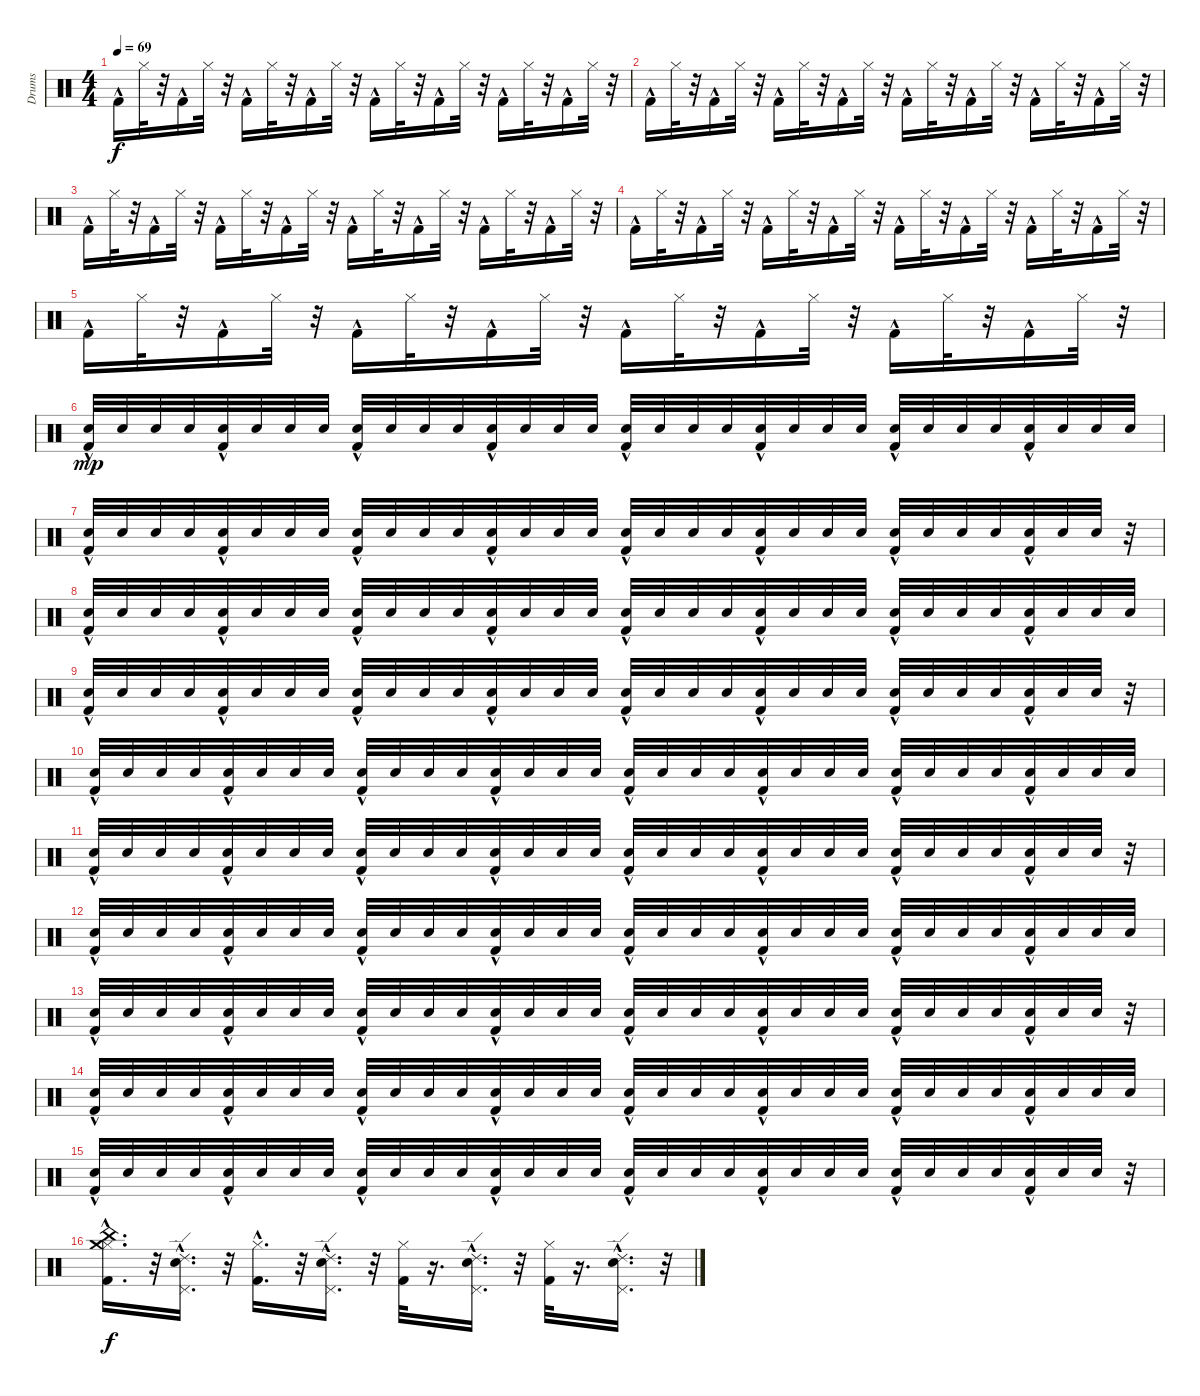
\track ("Drums" "Drums") {instrument percussion}
\staff {score}
\articulation defaults
\ts (4 4)
\tempo 69
\clef neutral
\ks c "Kick (hit) 2"{hac}.16{dy f} "Hi-Hat (closed)".32
r.32 "Kick (hit) 2"{hac}.16 "Hi-Hat (closed)".32 r.32 "Kick (hit) 2"{hac}.16 "Hi-Hat (closed)".32 r.32 "Kick (hit) 2"{hac}.16 "Hi-Hat (closed)".32 r.32 "Kick (hit) 2"{hac}.16 "Hi-Hat (closed)".32 r.32 "Kick (hit) 2"{hac}.16 "Hi-Hat (closed)".32 r.32 "Kick (hit) 2"{hac}.16 "Hi-Hat (closed)".32 r.32 "Kick (hit) 2"{hac}.16 "Hi-Hat (closed)".32 r.32 |
"Kick (hit) 2"{hac}.16 "Hi-Hat (closed)".32 r.32 "Kick (hit) 2"{hac}.16 "Hi-Hat (closed)".32 r.32 "Kick (hit) 2"{hac}.16 "Hi-Hat (closed)".32 r.32 "Kick (hit) 2"{hac}.16 "Hi-Hat (closed)".32 r.32 "Kick (hit) 2"{hac}.16 "Hi-Hat (closed)".32 r.32 "Kick (hit) 2"{hac}.16 "Hi-Hat (closed)".32 r.32 "Kick (hit) 2"{hac}.16 "Hi-Hat (closed)".32 r.32 "Kick (hit) 2"{hac}.16 "Hi-Hat (closed)".32 r.32 |
"Kick (hit) 2"{hac}.16 "Hi-Hat (closed)".32 r.32 "Kick (hit) 2"{hac}.16 "Hi-Hat (closed)".32 r.32 "Kick (hit) 2"{hac}.16 "Hi-Hat (closed)".32 r.32 "Kick (hit) 2"{hac}.16 "Hi-Hat (closed)".32 r.32 "Kick (hit) 2"{hac}.16 "Hi-Hat (closed)".32 r.32 "Kick (hit) 2"{hac}.16 "Hi-Hat (closed)".32 r.32 "Kick (hit) 2"{hac}.16 "Hi-Hat (closed)".32 r.32 "Kick (hit) 2"{hac}.16 "Hi-Hat (closed)".32 r.32 |
"Kick (hit) 2"{hac}.16 "Hi-Hat (closed)".32 r.32 "Kick (hit) 2"{hac}.16 "Hi-Hat (closed)".32 r.32 "Kick (hit) 2"{hac}.16 "Hi-Hat (closed)".32 r.32 "Kick (hit) 2"{hac}.16 "Hi-Hat (closed)".32 r.32 "Kick (hit) 2"{hac}.16 "Hi-Hat (closed)".32 r.32 "Kick (hit) 2"{hac}.16 "Hi-Hat (closed)".32 r.32 "Kick (hit) 2"{hac}.16 "Hi-Hat (closed)".32 r.32 "Kick (hit) 2"{hac}.16 "Hi-Hat (closed)".32 r.32 |
"Kick (hit) 2"{hac}.16 "Hi-Hat (closed)".32 r.32 "Kick (hit) 2"{hac}.16 "Hi-Hat (closed)".32 r.32 "Kick (hit) 2"{hac}.16 "Hi-Hat (closed)".32 r.32 "Kick (hit) 2"{hac}.16 "Hi-Hat (closed)".32 r.32 "Kick (hit) 2"{hac}.16 "Hi-Hat (closed)".32 r.32 "Kick (hit) 2"{hac}.16 "Hi-Hat (closed)".32 r.32 "Kick (hit) 2"{hac}.16 "Hi-Hat (closed)".32 r.32 "Kick (hit) 2"{hac}.16 "Hi-Hat (closed)".32 r.32 |
("Snare (hit) 2" "Kick (hit) 2"{hac}).32{dy mp} "Snare (hit) 2".32 "Snare (hit) 2".32 "Snare (hit) 2".32 ("Snare (hit) 2" "Kick (hit) 2"{hac}).32 "Snare (hit) 2".32 "Snare (hit) 2".32 "Snare (hit) 2".32 ("Snare (hit) 2" "Kick (hit) 2"{hac}).32 "Snare (hit) 2".32 "Snare (hit) 2".32 "Snare (hit) 2".32 ("Snare (hit) 2" "Kick (hit) 2"{hac}).32 "Snare (hit) 2".32 "Snare (hit) 2".32 "Snare (hit) 2".32 ("Snare (hit) 2" "Kick (hit) 2"{hac}).32 "Snare (hit) 2".32 "Snare (hit) 2".32 "Snare (hit) 2".32 ("Snare (hit) 2" "Kick (hit) 2"{hac}).32 "Snare (hit) 2".32 "Snare (hit) 2".32 "Snare (hit) 2".32 ("Snare (hit) 2" "Kick (hit) 2"{hac}).32 "Snare (hit) 2".32 "Snare (hit) 2".32 "Snare (hit) 2".32 ("Snare (hit) 2" "Kick (hit) 2"{hac}).32 "Snare (hit) 2".32 "Snare (hit) 2".32 "Snare (hit) 2".32 |
("Snare (hit) 2" "Kick (hit) 2"{hac}).32 "Snare (hit) 2".32 "Snare (hit) 2".32 "Snare (hit) 2".32 ("Snare (hit) 2" "Kick (hit) 2"{hac}).32 "Snare (hit) 2".32 "Snare (hit) 2".32 "Snare (hit) 2".32 ("Snare (hit) 2" "Kick (hit) 2"{hac}).32 "Snare (hit) 2".32 "Snare (hit) 2".32 "Snare (hit) 2".32 ("Snare (hit) 2" "Kick (hit) 2"{hac}).32 "Snare (hit) 2".32 "Snare (hit) 2".32 "Snare (hit) 2".32 ("Snare (hit) 2" "Kick (hit) 2"{hac}).32 "Snare (hit) 2".32 "Snare (hit) 2".32 "Snare (hit) 2".32 ("Snare (hit) 2" "Kick (hit) 2"{hac}).32 "Snare (hit) 2".32 "Snare (hit) 2".32 "Snare (hit) 2".32 ("Snare (hit) 2" "Kick (hit) 2"{hac}).32 "Snare (hit) 2".32 "Snare (hit) 2".32 "Snare (hit) 2".32 ("Snare (hit) 2" "Kick (hit) 2"{hac}).32 "Snare (hit) 2".32 "Snare (hit) 2".32 r.32 |
("Snare (hit) 2" "Kick (hit) 2"{hac}).32 "Snare (hit) 2".32 "Snare (hit) 2".32 "Snare (hit) 2".32 ("Snare (hit) 2" "Kick (hit) 2"{hac}).32 "Snare (hit) 2".32 "Snare (hit) 2".32 "Snare (hit) 2".32 ("Snare (hit) 2" "Kick (hit) 2"{hac}).32 "Snare (hit) 2".32 "Snare (hit) 2".32 "Snare (hit) 2".32 ("Snare (hit) 2" "Kick (hit) 2"{hac}).32 "Snare (hit) 2".32 "Snare (hit) 2".32 "Snare (hit) 2".32 ("Snare (hit) 2" "Kick (hit) 2"{hac}).32 "Snare (hit) 2".32 "Snare (hit) 2".32 "Snare (hit) 2".32 ("Snare (hit) 2" "Kick (hit) 2"{hac}).32 "Snare (hit) 2".32 "Snare (hit) 2".32 "Snare (hit) 2".32 ("Snare (hit) 2" "Kick (hit) 2"{hac}).32 "Snare (hit) 2".32 "Snare (hit) 2".32 "Snare (hit) 2".32 ("Snare (hit) 2" "Kick (hit) 2"{hac}).32 "Snare (hit) 2".32 "Snare (hit) 2".32 "Snare (hit) 2".32 |
("Snare (hit) 2" "Kick (hit) 2"{hac}).32 "Snare (hit) 2".32 "Snare (hit) 2".32 "Snare (hit) 2".32 ("Snare (hit) 2" "Kick (hit) 2"{hac}).32 "Snare (hit) 2".32 "Snare (hit) 2".32 "Snare (hit) 2".32 ("Snare (hit) 2" "Kick (hit) 2"{hac}).32 "Snare (hit) 2".32 "Snare (hit) 2".32 "Snare (hit) 2".32 ("Snare (hit) 2" "Kick (hit) 2"{hac}).32 "Snare (hit) 2".32 "Snare (hit) 2".32 "Snare (hit) 2".32 ("Snare (hit) 2" "Kick (hit) 2"{hac}).32 "Snare (hit) 2".32 "Snare (hit) 2".32 "Snare (hit) 2".32 ("Snare (hit) 2" "Kick (hit) 2"{hac}).32 "Snare (hit) 2".32 "Snare (hit) 2".32 "Snare (hit) 2".32 ("Snare (hit) 2" "Kick (hit) 2"{hac}).32 "Snare (hit) 2".32 "Snare (hit) 2".32 "Snare (hit) 2".32 ("Snare (hit) 2" "Kick (hit) 2"{hac}).32 "Snare (hit) 2".32 "Snare (hit) 2".32 r.32 |
("Snare (hit) 2" "Kick (hit) 2"{hac}).32 "Snare (hit) 2".32 "Snare (hit) 2".32 "Snare (hit) 2".32 ("Snare (hit) 2" "Kick (hit) 2"{hac}).32 "Snare (hit) 2".32 "Snare (hit) 2".32 "Snare (hit) 2".32 ("Snare (hit) 2" "Kick (hit) 2"{hac}).32 "Snare (hit) 2".32 "Snare (hit) 2".32 "Snare (hit) 2".32 ("Snare (hit) 2" "Kick (hit) 2"{hac}).32 "Snare (hit) 2".32 "Snare (hit) 2".32 "Snare (hit) 2".32 ("Snare (hit) 2" "Kick (hit) 2"{hac}).32 "Snare (hit) 2".32 "Snare (hit) 2".32 "Snare (hit) 2".32 ("Snare (hit) 2" "Kick (hit) 2"{hac}).32 "Snare (hit) 2".32 "Snare (hit) 2".32 "Snare (hit) 2".32 ("Snare (hit) 2" "Kick (hit) 2"{hac}).32 "Snare (hit) 2".32 "Snare (hit) 2".32 "Snare (hit) 2".32 ("Snare (hit) 2" "Kick (hit) 2"{hac}).32 "Snare (hit) 2".32 "Snare (hit) 2".32 "Snare (hit) 2".32 |
("Snare (hit) 2" "Kick (hit) 2"{hac}).32 "Snare (hit) 2".32 "Snare (hit) 2".32 "Snare (hit) 2".32 ("Snare (hit) 2" "Kick (hit) 2"{hac}).32 "Snare (hit) 2".32 "Snare (hit) 2".32 "Snare (hit) 2".32 ("Snare (hit) 2" "Kick (hit) 2"{hac}).32 "Snare (hit) 2".32 "Snare (hit) 2".32 "Snare (hit) 2".32 ("Snare (hit) 2" "Kick (hit) 2"{hac}).32 "Snare (hit) 2".32 "Snare (hit) 2".32 "Snare (hit) 2".32 ("Snare (hit) 2" "Kick (hit) 2"{hac}).32 "Snare (hit) 2".32 "Snare (hit) 2".32 "Snare (hit) 2".32 ("Snare (hit) 2" "Kick (hit) 2"{hac}).32 "Snare (hit) 2".32 "Snare (hit) 2".32 "Snare (hit) 2".32 ("Snare (hit) 2" "Kick (hit) 2"{hac}).32 "Snare (hit) 2".32 "Snare (hit) 2".32 "Snare (hit) 2".32 ("Snare (hit) 2" "Kick (hit) 2"{hac}).32 "Snare (hit) 2".32 "Snare (hit) 2".32 r.32 |
("Snare (hit) 2" "Kick (hit) 2"{hac}).32 "Snare (hit) 2".32 "Snare (hit) 2".32 "Snare (hit) 2".32 ("Snare (hit) 2" "Kick (hit) 2"{hac}).32 "Snare (hit) 2".32 "Snare (hit) 2".32 "Snare (hit) 2".32 ("Snare (hit) 2" "Kick (hit) 2"{hac}).32 "Snare (hit) 2".32 "Snare (hit) 2".32 "Snare (hit) 2".32 ("Snare (hit) 2" "Kick (hit) 2"{hac}).32 "Snare (hit) 2".32 "Snare (hit) 2".32 "Snare (hit) 2".32 ("Snare (hit) 2" "Kick (hit) 2"{hac}).32 "Snare (hit) 2".32 "Snare (hit) 2".32 "Snare (hit) 2".32 ("Snare (hit) 2" "Kick (hit) 2"{hac}).32 "Snare (hit) 2".32 "Snare (hit) 2".32 "Snare (hit) 2".32 ("Snare (hit) 2" "Kick (hit) 2"{hac}).32 "Snare (hit) 2".32 "Snare (hit) 2".32 "Snare (hit) 2".32 ("Snare (hit) 2" "Kick (hit) 2"{hac}).32 "Snare (hit) 2".32 "Snare (hit) 2".32 "Snare (hit) 2".32 |
("Snare (hit) 2" "Kick (hit) 2"{hac}).32 "Snare (hit) 2".32 "Snare (hit) 2".32 "Snare (hit) 2".32 ("Snare (hit) 2" "Kick (hit) 2"{hac}).32 "Snare (hit) 2".32 "Snare (hit) 2".32 "Snare (hit) 2".32 ("Snare (hit) 2" "Kick (hit) 2"{hac}).32 "Snare (hit) 2".32 "Snare (hit) 2".32 "Snare (hit) 2".32 ("Snare (hit) 2" "Kick (hit) 2"{hac}).32 "Snare (hit) 2".32 "Snare (hit) 2".32 "Snare (hit) 2".32 ("Snare (hit) 2" "Kick (hit) 2"{hac}).32 "Snare (hit) 2".32 "Snare (hit) 2".32 "Snare (hit) 2".32 ("Snare (hit) 2" "Kick (hit) 2"{hac}).32 "Snare (hit) 2".32 "Snare (hit) 2".32 "Snare (hit) 2".32 ("Snare (hit) 2" "Kick (hit) 2"{hac}).32 "Snare (hit) 2".32 "Snare (hit) 2".32 "Snare (hit) 2".32 ("Snare (hit) 2" "Kick (hit) 2"{hac}).32 "Snare (hit) 2".32 "Snare (hit) 2".32 r.32 |
("Snare (hit) 2" "Kick (hit) 2"{hac}).32 "Snare (hit) 2".32 "Snare (hit) 2".32 "Snare (hit) 2".32 ("Snare (hit) 2" "Kick (hit) 2"{hac}).32 "Snare (hit) 2".32 "Snare (hit) 2".32 "Snare (hit) 2".32 ("Snare (hit) 2" "Kick (hit) 2"{hac}).32 "Snare (hit) 2".32 "Snare (hit) 2".32 "Snare (hit) 2".32 ("Snare (hit) 2" "Kick (hit) 2"{hac}).32 "Snare (hit) 2".32 "Snare (hit) 2".32 "Snare (hit) 2".32 ("Snare (hit) 2" "Kick (hit) 2"{hac}).32 "Snare (hit) 2".32 "Snare (hit) 2".32 "Snare (hit) 2".32 ("Snare (hit) 2" "Kick (hit) 2"{hac}).32 "Snare (hit) 2".32 "Snare (hit) 2".32 "Snare (hit) 2".32 ("Snare (hit) 2" "Kick (hit) 2"{hac}).32 "Snare (hit) 2".32 "Snare (hit) 2".32 "Snare (hit) 2".32 ("Snare (hit) 2" "Kick (hit) 2"{hac}).32 "Snare (hit) 2".32 "Snare (hit) 2".32 "Snare (hit) 2".32 |
("Snare (hit) 2" "Kick (hit) 2"{hac}).32 "Snare (hit) 2".32 "Snare (hit) 2".32 "Snare (hit) 2".32 ("Snare (hit) 2" "Kick (hit) 2"{hac}).32 "Snare (hit) 2".32 "Snare (hit) 2".32 "Snare (hit) 2".32 ("Snare (hit) 2" "Kick (hit) 2"{hac}).32 "Snare (hit) 2".32 "Snare (hit) 2".32 "Snare (hit) 2".32 ("Snare (hit) 2" "Kick (hit) 2"{hac}).32 "Snare (hit) 2".32 "Snare (hit) 2".32 "Snare (hit) 2".32 ("Snare (hit) 2" "Kick (hit) 2"{hac}).32 "Snare (hit) 2".32 "Snare (hit) 2".32 "Snare (hit) 2".32 ("Snare (hit) 2" "Kick (hit) 2"{hac}).32 "Snare (hit) 2".32 "Snare (hit) 2".32 "Snare (hit) 2".32 ("Snare (hit) 2" "Kick (hit) 2"{hac}).32 "Snare (hit) 2".32 "Snare (hit) 2".32 "Snare (hit) 2".32 ("Snare (hit) 2" "Kick (hit) 2"{hac}).32 "Snare (hit) 2".32 "Snare (hit) 2".32 r.32 |
("Kick (hit) 2"{hac} "Hi-Hat (closed)"{hac} "Crash medium (hit)" "China (hit)").16{d dy f} r.32 ("Snare (hit) 2"{hac} "Pedal Hi-Hat (hit)"{hac} "Ride (edge) 2").16{d} r.32 ("Kick (hit) 2"{hac} "Hi-Hat (closed)"{hac}).16{d} r.32 ("Snare (hit) 2"{hac} "Pedal Hi-Hat (hit)"{hac} "Ride (edge) 2").16{d} r.32 ("Hi-Hat (closed)" "Kick (hit) 2").32 r.16{d} ("Ride (edge) 2"{hac} "Pedal Hi-Hat (hit)" "Snare (hit) 2").16{d} r.32 ("Hi-Hat (closed)" "Kick (hit) 2").32 r.16{d} ("Ride (edge) 2"{hac} "Pedal Hi-Hat (hit)" "Snare (hit) 2").16{d} r.32
